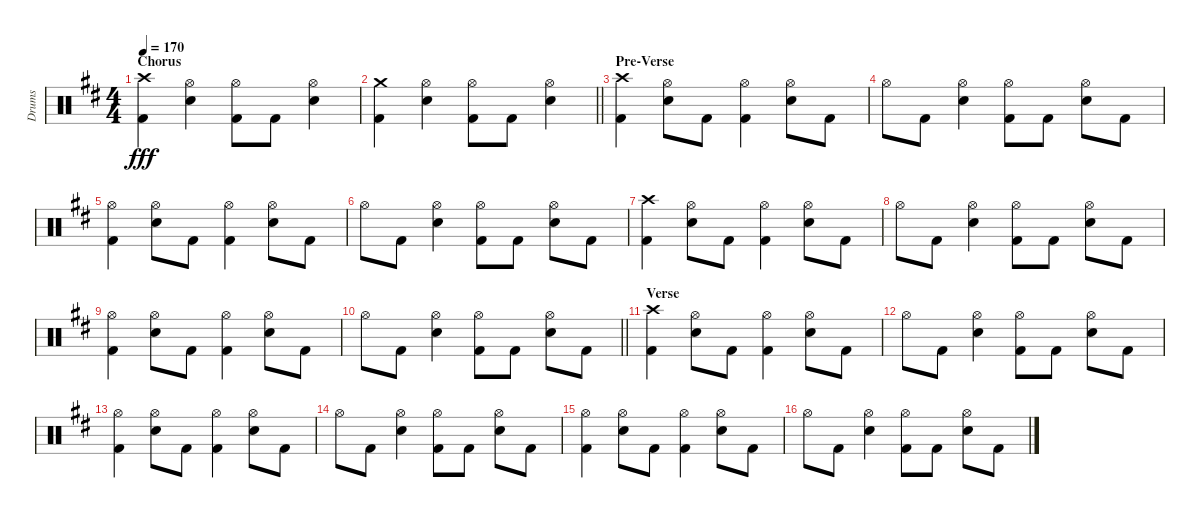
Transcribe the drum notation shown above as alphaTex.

\track ("Drums" "Drums") {instrument percussion}
\staff {score}
\articulation defaults
\ts (4 4)
\section ("" "Chorus")
\tempo 170
\clef neutral
\ks bminor
("Crash high (hit)" "Kick (hit) 2").4{dy fff} ("Hi-Hat (open)" "Snare (hit) 2").4 ("Hi-Hat (open)" "Kick (hit) 2").8 "Kick (hit) 2".8 ("Hi-Hat (open)" "Snare (hit) 2").4 |
\barLineRight lightlight
("Crash medium (hit)" "Kick (hit) 2").4 ("Hi-Hat (open)" "Snare (hit) 2").4 ("Hi-Hat (open)" "Kick (hit) 2").8 "Kick (hit) 2".8 ("Hi-Hat (open)" "Snare (hit) 2").4 |
\section ("" "Pre-Verse")
("Crash high (hit)" "Kick (hit) 2").4 ("Hi-Hat (open)" "Snare (hit) 2").8 "Kick (hit) 2".8 ("Hi-Hat (open)" "Kick (hit) 2").4 ("Hi-Hat (open)" "Snare (hit) 2").8 "Kick (hit) 2".8 |
"Hi-Hat (open)".8 "Kick (hit) 2".8 ("Hi-Hat (open)" "Snare (hit) 2").4 ("Hi-Hat (open)" "Kick (hit) 2").8 "Kick (hit) 2".8 ("Hi-Hat (open)" "Snare (hit) 2").8 "Kick (hit) 2".8 |
("Hi-Hat (open)" "Kick (hit) 2").4 ("Hi-Hat (open)" "Snare (hit) 2").8 "Kick (hit) 2".8 ("Hi-Hat (open)" "Kick (hit) 2").4 ("Hi-Hat (open)" "Snare (hit) 2").8 "Kick (hit) 2".8 |
"Hi-Hat (open)".8 "Kick (hit) 2".8 ("Hi-Hat (open)" "Snare (hit) 2").4 ("Hi-Hat (open)" "Kick (hit) 2").8 "Kick (hit) 2".8 ("Hi-Hat (open)" "Snare (hit) 2").8 "Kick (hit) 2".8 |
("Crash high (hit)" "Kick (hit) 2").4 ("Hi-Hat (open)" "Snare (hit) 2").8 "Kick (hit) 2".8 ("Hi-Hat (open)" "Kick (hit) 2").4 ("Hi-Hat (open)" "Snare (hit) 2").8 "Kick (hit) 2".8 |
"Hi-Hat (open)".8 "Kick (hit) 2".8 ("Hi-Hat (open)" "Snare (hit) 2").4 ("Hi-Hat (open)" "Kick (hit) 2").8 "Kick (hit) 2".8 ("Hi-Hat (open)" "Snare (hit) 2").8 "Kick (hit) 2".8 |
("Hi-Hat (open)" "Kick (hit) 2").4 ("Hi-Hat (open)" "Snare (hit) 2").8 "Kick (hit) 2".8 ("Hi-Hat (open)" "Kick (hit) 2").4 ("Hi-Hat (open)" "Snare (hit) 2").8 "Kick (hit) 2".8 |
\barLineRight lightlight "Hi-Hat (open)".8 "Kick (hit) 2".8
("Hi-Hat (open)" "Snare (hit) 2").4 ("Hi-Hat (open)" "Kick (hit) 2").8 "Kick (hit) 2".8 ("Hi-Hat (open)" "Snare (hit) 2").8 "Kick (hit) 2".8 |
\section ("" "Verse")
("Crash high (hit)" "Kick (hit) 2").4 ("Hi-Hat (open)" "Snare (hit) 2").8 "Kick (hit) 2".8 ("Hi-Hat (open)" "Kick (hit) 2").4 ("Hi-Hat (open)" "Snare (hit) 2").8 "Kick (hit) 2".8 |
"Hi-Hat (open)".8 "Kick (hit) 2".8 ("Hi-Hat (open)" "Snare (hit) 2").4 ("Hi-Hat (open)" "Kick (hit) 2").8 "Kick (hit) 2".8 ("Hi-Hat (open)" "Snare (hit) 2").8 "Kick (hit) 2".8 |
("Hi-Hat (open)" "Kick (hit) 2").4 ("Hi-Hat (open)" "Snare (hit) 2").8 "Kick (hit) 2".8 ("Hi-Hat (open)" "Kick (hit) 2").4 ("Hi-Hat (open)" "Snare (hit) 2").8 "Kick (hit) 2".8 |
"Hi-Hat (open)".8 "Kick (hit) 2".8 ("Hi-Hat (open)" "Snare (hit) 2").4 ("Hi-Hat (open)" "Kick (hit) 2").8 "Kick (hit) 2".8 ("Hi-Hat (open)" "Snare (hit) 2").8 "Kick (hit) 2".8 |
("Hi-Hat (open)" "Kick (hit) 2").4 ("Hi-Hat (open)" "Snare (hit) 2").8 "Kick (hit) 2".8 ("Hi-Hat (open)" "Kick (hit) 2").4 ("Hi-Hat (open)" "Snare (hit) 2").8 "Kick (hit) 2".8 |
"Hi-Hat (open)".8 "Kick (hit) 2".8 ("Hi-Hat (open)" "Snare (hit) 2").4 ("Hi-Hat (open)" "Kick (hit) 2").8 "Kick (hit) 2".8 ("Hi-Hat (open)" "Snare (hit) 2").8 "Kick (hit) 2".8
